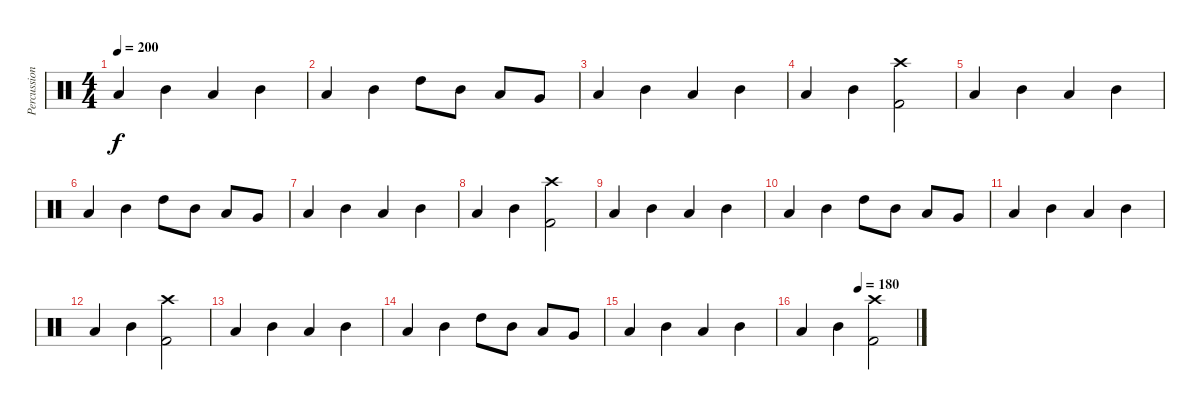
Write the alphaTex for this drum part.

\track ("Percussion" "Percussion") {instrument percussion}
\staff {score}
\articulation defaults
\ts (4 4)
\tempo 200
\clef neutral
\ks c "Low Tom (hit)".4{dy f} "Mid Tom (hit)".4 "Low Tom (hit)".4 "Mid Tom (hit)".4
|
"Low Tom (hit)".4 "Mid Tom (hit)".4 "High Tom (hit)".8 "Mid Tom (hit)".8 "Low Tom (hit)".8 "Very Low Tom (hit)".8 |
"Low Tom (hit)".4 "Mid Tom (hit)".4 "Low Tom (hit)".4 "Mid Tom (hit)".4 |
"Low Tom (hit)".4 "Mid Tom (hit)".4 ("Crash high (hit)" "Kick (hit) 2").2 |
"Low Tom (hit)".4 "Mid Tom (hit)".4 "Low Tom (hit)".4 "Mid Tom (hit)".4 |
"Low Tom (hit)".4 "Mid Tom (hit)".4 "High Tom (hit)".8 "Mid Tom (hit)".8 "Low Tom (hit)".8 "Very Low Tom (hit)".8 |
"Low Tom (hit)".4 "Mid Tom (hit)".4 "Low Tom (hit)".4 "Mid Tom (hit)".4 |
"Low Tom (hit)".4 "Mid Tom (hit)".4 ("Crash high (hit)" "Kick (hit) 2").2 |
"Low Tom (hit)".4 "Mid Tom (hit)".4 "Low Tom (hit)".4 "Mid Tom (hit)".4 |
"Low Tom (hit)".4 "Mid Tom (hit)".4 "High Tom (hit)".8 "Mid Tom (hit)".8 "Low Tom (hit)".8 "Very Low Tom (hit)".8 |
"Low Tom (hit)".4 "Mid Tom (hit)".4 "Low Tom (hit)".4 "Mid Tom (hit)".4 |
"Low Tom (hit)".4 "Mid Tom (hit)".4 ("Crash high (hit)" "Kick (hit) 2").2 |
"Low Tom (hit)".4 "Mid Tom (hit)".4 "Low Tom (hit)".4 "Mid Tom (hit)".4 |
"Low Tom (hit)".4 "Mid Tom (hit)".4 "High Tom (hit)".8 "Mid Tom (hit)".8 "Low Tom (hit)".8 "Very Low Tom (hit)".8 |
"Low Tom (hit)".4 "Mid Tom (hit)".4 "Low Tom (hit)".4 "Mid Tom (hit)".4 |
\tempo (180 0.5)
"Low Tom (hit)".4 "Mid Tom (hit)".4 ("Crash high (hit)" "Kick (hit) 2").2
